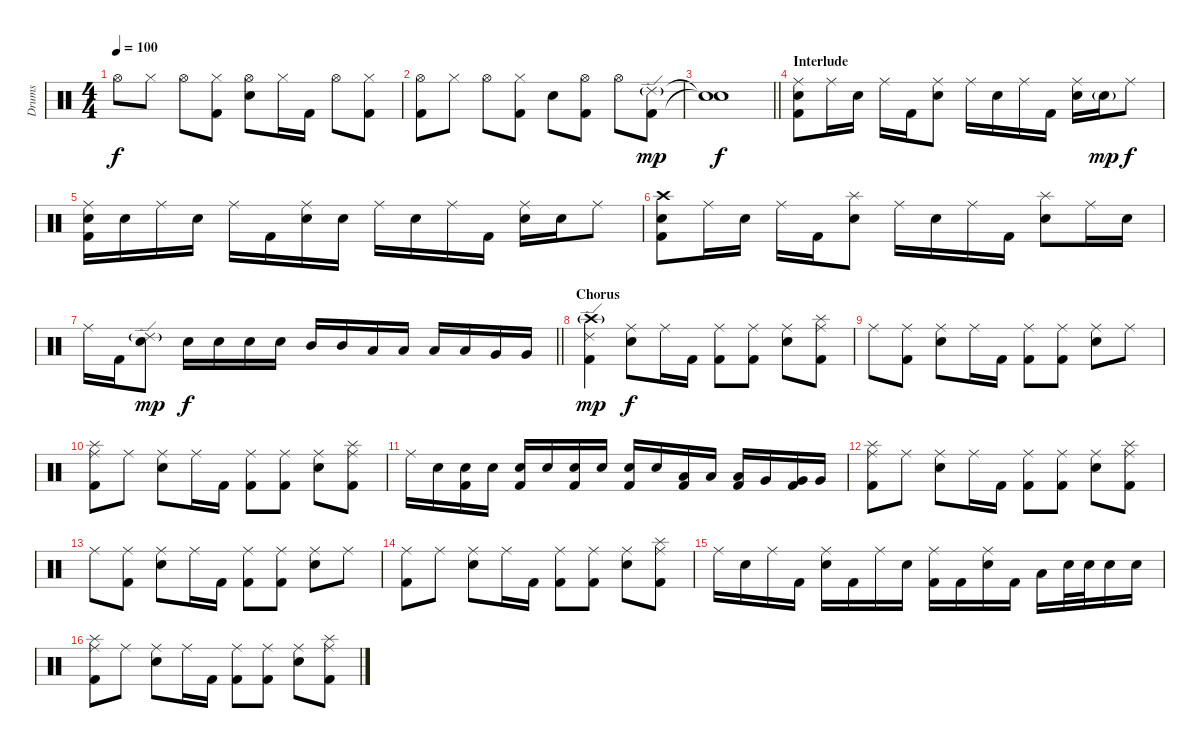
\track ("Drums" "Drums") {instrument percussion}
\staff {score}
\articulation defaults
\ts (4 4)
\tempo 100
\clef neutral
\ks c "Hi-Hat (open)".8{dy f} "Hi-Hat (closed)".8 "Hi-Hat (open)".8
("Hi-Hat (closed)" "Kick (hit) 2").8 ("Hi-Hat (open)" "Snare (hit) 2").8 "Hi-Hat (closed)".16 "Kick (hit) 2".16 "Hi-Hat (open)".8 ("Hi-Hat (closed)" "Kick (hit) 2").8 |
("Hi-Hat (open)" "Kick (hit) 2").8 "Hi-Hat (closed)".8 "Hi-Hat (open)".8 ("Hi-Hat (closed)" "Kick (hit) 2").8 "Snare (hit) 2".8 ("Hi-Hat (open)" "Kick (hit) 2").8 "Hi-Hat (open)".8 ("Ride (edge) 2"{g} "Kick (hit) 2").8{dy mp} |
\barLineRight lightlight
("Snare (hit)"{t} "Snare (hit)"{t}).1{dy f} |
\section ("" "Interlude")
("Kick (hit) 2" "Snare (hit) 2" "Ride (middle)").8 "Ride (middle)".16 "Snare (hit) 2".16 "Ride (middle)".16 "Kick (hit) 2".16 ("Snare (hit) 2" "Ride (middle)").8 "Ride (middle)".16 "Snare (hit) 2".16 "Ride (middle)".16 "Kick (hit) 2".16 ("Snare (hit) 2" "Ride (middle)").16 "Snare (hit) 2"{g}.16{dy mp} "Ride (middle)".8{dy f} |
("Kick (hit) 2" "Snare (hit) 2" "Ride (middle)").16 "Snare (hit) 2".16 "Ride (middle)".16 "Snare (hit) 2".16 "Ride (middle)".16 "Kick (hit) 2".16 ("Snare (hit) 2" "Ride (middle)").16 "Snare (hit) 2".16 "Ride (middle)".16 "Snare (hit) 2".16 "Ride (middle)".16 "Kick (hit) 2".16 ("Snare (hit) 2" "Ride (middle)").16 "Snare (hit) 2".16 "Ride (middle)".8 |
("Kick (hit) 2" "Snare (hit) 2" "Crash high (hit)").8 "Ride (middle)".16 "Snare (hit) 2".16 "Ride (middle)".16 "Kick (hit) 2".16 ("Snare (hit) 2" "Splash (hit)").8 "Ride (middle)".16 "Snare (hit) 2".16 "Ride (middle)".16 "Kick (hit) 2".16 ("Snare (hit) 2" "Splash (hit)").8 "Ride (middle)".16 "Snare (hit) 2".16 |
\barLineRight lightlight "Ride (middle)".16 "Kick (hit) 2".16
("Snare (hit) 2" "Ride (edge) 2"{g}).8{dy mp} "Snare (hit) 2".16{dy f} "Snare (hit) 2".16 "Snare (hit) 2".16 "Snare (hit) 2".16 "Mid Tom (hit)".16 "Mid Tom (hit)".16 "Low Tom (hit)".16 "Low Tom (hit)".16 "Low Tom (hit)".16 "Low Tom (hit)".16 "Very Low Tom (hit)".16 "Very Low Tom (hit)".16 |
\section ("" "Chorus")
("Ride (edge) 2" "Kick (hit) 2" "Crash high (hit)"{g}).4{dy mp} ("Ride (middle)" "Snare (hit) 2").8{dy f} "Ride (middle)".16 "Kick (hit) 2".16 ("Ride (middle)" "Kick (hit) 2").8 ("Ride (middle)" "Kick (hit) 2").8 ("Ride (middle)" "Snare (hit) 2").8 ("Ride (middle)" "Kick (hit) 2" "Splash (hit)").8 |
"Ride (middle)".8 ("Ride (middle)" "Kick (hit) 2").8 ("Ride (middle)" "Snare (hit) 2").8 "Ride (middle)".16 "Kick (hit) 2".16 ("Ride (middle)" "Kick (hit) 2").8 ("Ride (middle)" "Kick (hit) 2").8 ("Ride (middle)" "Snare (hit) 2").8 "Ride (middle)".8 |
("Ride (middle)" "Kick (hit) 2" "Splash (hit)").8 "Ride (middle)".8 ("Ride (middle)" "Snare (hit) 2").8 "Ride (middle)".16 "Kick (hit) 2".16 ("Ride (middle)" "Kick (hit) 2").8 ("Ride (middle)" "Kick (hit) 2").8 ("Ride (middle)" "Snare (hit) 2").8 ("Ride (middle)" "Kick (hit) 2" "Splash (hit)").8 |
"Ride (middle)".16 "Snare (hit) 2".16 ("Snare (hit) 2" "Kick (hit) 2").16 "Snare (hit) 2".16 ("Snare (hit) 2" "Kick (hit) 2").16 "Snare (hit) 2".16 ("Snare (hit) 2" "Kick (hit) 2").16 "Snare (hit) 2".16 ("Snare (hit) 2" "Kick (hit) 2").16 "Snare (hit) 2".16 ("Low Tom (hit)" "Kick (hit) 2").16 "Low Tom (hit)".16 ("Low Tom (hit)" "Kick (hit) 2").16 "Very Low Tom (hit)".16 ("Very Low Tom (hit)" "Kick (hit) 2").16 "Very Low Tom (hit)".16 |
("Splash (hit)" "Kick (hit) 2" "Ride (middle)").8 "Ride (middle)".8 ("Ride (middle)" "Snare (hit) 2").8 "Ride (middle)".16 "Kick (hit) 2".16 ("Ride (middle)" "Kick (hit) 2").8 ("Ride (middle)" "Kick (hit) 2").8 ("Ride (middle)" "Snare (hit) 2").8 ("Ride (middle)" "Kick (hit) 2" "Splash (hit)").8 |
"Ride (middle)".8 ("Ride (middle)" "Kick (hit) 2").8 ("Ride (middle)" "Snare (hit) 2").8 "Ride (middle)".16 "Kick (hit) 2".16 ("Ride (middle)" "Kick (hit) 2").8 ("Ride (middle)" "Kick (hit) 2").8 ("Ride (middle)" "Snare (hit) 2").8 "Ride (middle)".8 |
("Ride (middle)" "Kick (hit) 2").8 "Ride (middle)".8 ("Ride (middle)" "Snare (hit) 2").8 "Ride (middle)".16 "Kick (hit) 2".16 ("Ride (middle)" "Kick (hit) 2").8 ("Ride (middle)" "Kick (hit) 2").8 ("Ride (middle)" "Snare (hit) 2").8 ("Ride (middle)" "Kick (hit) 2" "Splash (hit)").8 |
"Ride (middle)".16 "Snare (hit) 2".16 "Ride (middle)".16 "Kick (hit) 2".16 ("Ride (middle)" "Snare (hit) 2").16 "Kick (hit) 2".16 "Ride (middle)".16 "Snare (hit) 2".16 ("Ride (middle)" "Kick (hit) 2").16 "Kick (hit) 2".16 ("Ride (middle)" "Snare (hit) 2").16 "Kick (hit) 2".16 "Low Tom (hit)".16 "Snare (hit) 2".32 "Snare (hit) 2".32 "Snare (hit) 2".16 "Snare (hit) 2".16 |
("Kick (hit) 2" "Splash (hit)" "Ride (middle)").8 "Ride (middle)".8 ("Snare (hit) 2" "Ride (middle)").8 "Ride (middle)".16 "Kick (hit) 2".16 ("Ride (middle)" "Kick (hit) 2").8 ("Ride (middle)" "Kick (hit) 2").8 ("Ride (middle)" "Snare (hit) 2").8 ("Splash (hit)" "Kick (hit) 2" "Ride (middle)").8
